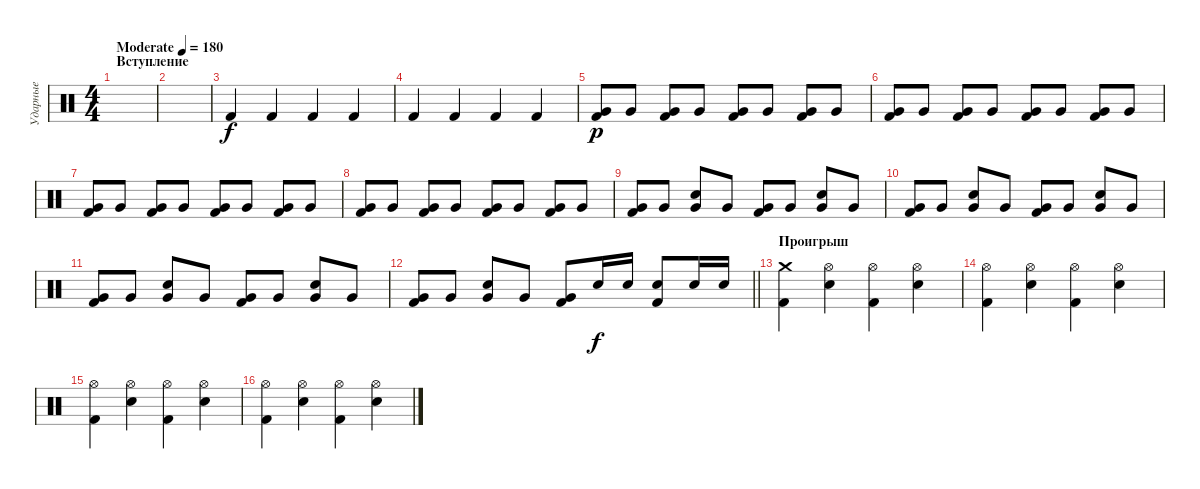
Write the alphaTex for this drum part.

\track ("Ударные" "Ударные") {instrument percussion}
\staff {score}
\articulation defaults
\ts (4 4)
\section ("" "Вступление")
\tempo (180 "Moderate")
\clef neutral
\ks c
|
|
"Kick (hit) 2".4 "Kick (hit) 2".4 "Kick (hit) 2".4 "Kick (hit) 2".4 |
"Kick (hit) 2".4 "Kick (hit) 2".4 "Kick (hit) 2".4 "Kick (hit) 2".4 |
("Kick (hit) 2" "Very Low Tom (hit)").8{dy p} "Very Low Tom (hit)".8 ("Kick (hit) 2" "Very Low Tom (hit)").8 "Very Low Tom (hit)".8 ("Kick (hit) 2" "Very Low Tom (hit)").8 "Very Low Tom (hit)".8 ("Kick (hit) 2" "Very Low Tom (hit)").8 "Very Low Tom (hit)".8 |
("Kick (hit) 2" "Very Low Tom (hit)").8 "Very Low Tom (hit)".8 ("Kick (hit) 2" "Very Low Tom (hit)").8 "Very Low Tom (hit)".8 ("Kick (hit) 2" "Very Low Tom (hit)").8 "Very Low Tom (hit)".8 ("Kick (hit) 2" "Very Low Tom (hit)").8 "Very Low Tom (hit)".8 |
("Kick (hit) 2" "Very Low Tom (hit)").8 "Very Low Tom (hit)".8 ("Kick (hit) 2" "Very Low Tom (hit)").8 "Very Low Tom (hit)".8 ("Kick (hit) 2" "Very Low Tom (hit)").8 "Very Low Tom (hit)".8 ("Kick (hit) 2" "Very Low Tom (hit)").8 "Very Low Tom (hit)".8 |
("Kick (hit) 2" "Very Low Tom (hit)").8 "Very Low Tom (hit)".8 ("Kick (hit) 2" "Very Low Tom (hit)").8 "Very Low Tom (hit)".8 ("Kick (hit) 2" "Very Low Tom (hit)").8 "Very Low Tom (hit)".8 ("Kick (hit) 2" "Very Low Tom (hit)").8 "Very Low Tom (hit)".8 |
("Kick (hit) 2" "Very Low Tom (hit)").8 "Very Low Tom (hit)".8 ("Electric Snare (hit)" "Very Low Tom (hit)").8 "Very Low Tom (hit)".8 ("Kick (hit) 2" "Very Low Tom (hit)").8 "Very Low Tom (hit)".8 ("Electric Snare (hit)" "Very Low Tom (hit)").8 "Very Low Tom (hit)".8 |
("Kick (hit) 2" "Very Low Tom (hit)").8 "Very Low Tom (hit)".8 ("Electric Snare (hit)" "Very Low Tom (hit)").8 "Very Low Tom (hit)".8 ("Kick (hit) 2" "Very Low Tom (hit)").8 "Very Low Tom (hit)".8 ("Electric Snare (hit)" "Very Low Tom (hit)").8 "Very Low Tom (hit)".8 |
("Kick (hit) 2" "Very Low Tom (hit)").8 "Very Low Tom (hit)".8 ("Electric Snare (hit)" "Very Low Tom (hit)").8 "Very Low Tom (hit)".8 ("Kick (hit) 2" "Very Low Tom (hit)").8 "Very Low Tom (hit)".8 ("Electric Snare (hit)" "Very Low Tom (hit)").8 "Very Low Tom (hit)".8 |
\barLineRight lightlight
("Kick (hit) 2" "Very Low Tom (hit)").8 "Very Low Tom (hit)".8 ("Electric Snare (hit)" "Very Low Tom (hit)").8 "Very Low Tom (hit)".8 ("Kick (hit) 2" "Very Low Tom (hit)").8 "Electric Snare (hit)".16{dy f} "Electric Snare (hit)".16 ("Kick (hit) 2" "Electric Snare (hit)").8 "Electric Snare (hit)".16 "Electric Snare (hit)".16 |
\section ("" "Проигрыш")
("Crash medium (hit)" "Kick (hit) 2").4 ("Hi-Hat (open)" "Electric Snare (hit)").4 ("Hi-Hat (open)" "Kick (hit) 2").4 ("Hi-Hat (open)" "Electric Snare (hit)").4 |
("Hi-Hat (open)" "Kick (hit) 2").4 ("Hi-Hat (open)" "Electric Snare (hit)").4 ("Hi-Hat (open)" "Kick (hit) 2").4 ("Hi-Hat (open)" "Electric Snare (hit)").4 |
("Hi-Hat (open)" "Kick (hit) 2").4 ("Hi-Hat (open)" "Electric Snare (hit)").4 ("Hi-Hat (open)" "Kick (hit) 2").4 ("Hi-Hat (open)" "Electric Snare (hit)").4 |
("Hi-Hat (open)" "Kick (hit) 2").4 ("Hi-Hat (open)" "Electric Snare (hit)").4 ("Hi-Hat (open)" "Kick (hit) 2").4 ("Hi-Hat (open)" "Electric Snare (hit)").4
